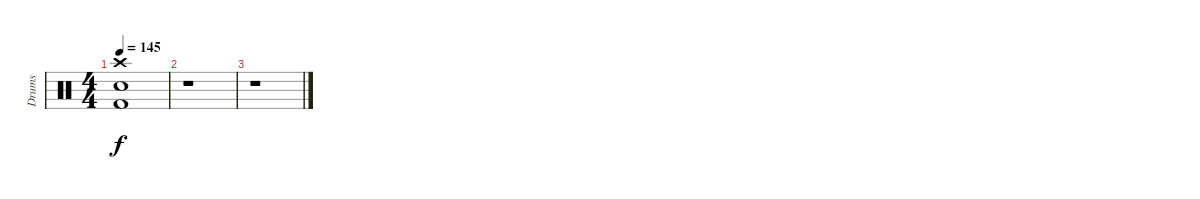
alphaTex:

\track ("Drums" "Drums") {instrument percussion}
\staff {score}
\articulation defaults
\ts (4 4)
\tempo 145
\clef neutral
\ks c
("Crash high (hit)" "Electric Snare (hit)" "Kick (hit) 2").1{dy f} |
r.1 |
r.1
